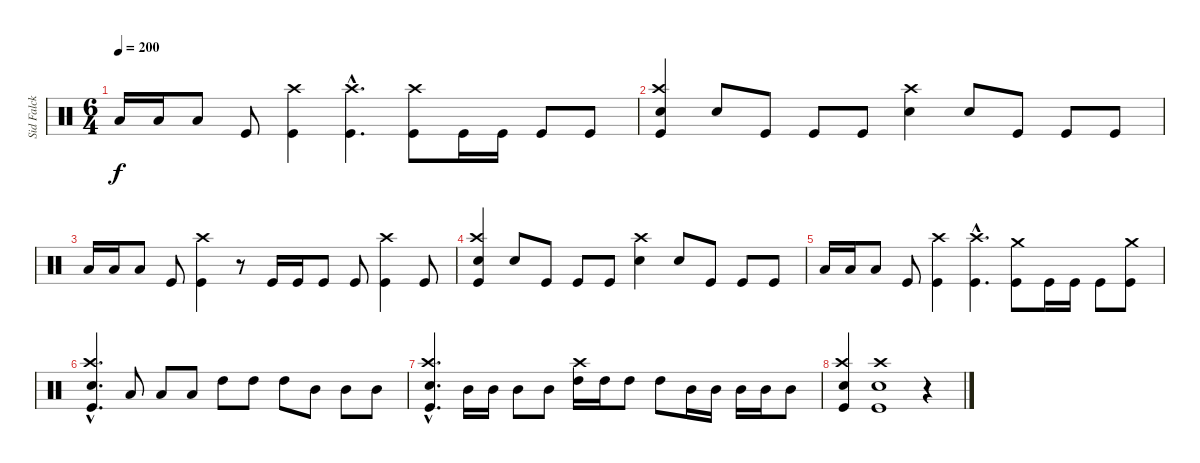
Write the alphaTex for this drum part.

\track ("Sid Falck - drums" "Sid Falck ") {instrument percussion}
\staff {score}
\articulation defaults
\ts (6 4)
\tempo 200
\clef neutral
\ks c "Low Tom (hit)".16{dy f} "Low Tom (hit)".16 "Low Tom (hit)".8 "Kick (hit)".8
("Crash high (hit)" "Kick (hit)").4 ("Crash high (hit)"{hac} "Kick (hit)"{hac}).4{d} ("Crash high (hit)" "Kick (hit)").8 "Kick (hit)".16 "Kick (hit)".16 "Kick (hit)".8 "Kick (hit)".8 |
("Crash high (hit)" "Electric Snare (hit)" "Kick (hit)").4 "Electric Snare (hit)".8 "Kick (hit)".8 "Kick (hit)".8 "Kick (hit)".8 ("Crash high (hit)" "Electric Snare (hit)").4 "Electric Snare (hit)".8 "Kick (hit)".8 "Kick (hit)".8 "Kick (hit)".8 |
"Low Tom (hit)".16 "Low Tom (hit)".16 "Low Tom (hit)".8 "Kick (hit)".8 ("Crash high (hit)" "Kick (hit)").4 r.8 "Kick (hit)".16 "Kick (hit)".16 "Kick (hit)".8 "Kick (hit)".8 ("Crash high (hit)" "Kick (hit)").4 "Kick (hit)".8 |
("Crash high (hit)" "Electric Snare (hit)" "Kick (hit)").4 "Electric Snare (hit)".8 "Kick (hit)".8 "Kick (hit)".8 "Kick (hit)".8 ("Crash high (hit)" "Electric Snare (hit)").4 "Electric Snare (hit)".8 "Kick (hit)".8 "Kick (hit)".8 "Kick (hit)".8 |
"Low Tom (hit)".16 "Low Tom (hit)".16 "Low Tom (hit)".8 "Kick (hit)".8 ("Crash high (hit)" "Kick (hit)").4 ("Crash high (hit)"{hac} "Kick (hit)"{hac}).4{d} ("Crash medium (hit)" "Kick (hit)").8 "Kick (hit)".16 "Kick (hit)".16 "Kick (hit)".8 ("Crash medium (hit)" "Kick (hit)").8 |
("Crash high (hit)"{hac} "Electric Snare (hit)"{hac} "Kick (hit)"{hac}).4{d} "Low Tom (hit)".8 "Low Tom (hit)".8 "Low Tom (hit)".8 "High Tom (hit)".8 "High Tom (hit)".8 "High Tom (hit)".8 "Mid Tom (hit)".8 "Mid Tom (hit)".8 "Mid Tom (hit)".8 |
("Crash high (hit)"{hac} "Electric Snare (hit)"{hac} "Kick (hit)"{hac}).4{d} "Mid Tom (hit)".16 "Mid Tom (hit)".16 "Mid Tom (hit)".8 "Mid Tom (hit)".8 ("Crash high (hit)" "High Tom (hit)").16 "High Tom (hit)".16 "High Tom (hit)".8 "High Tom (hit)".8 "Mid Tom (hit)".16 "Mid Tom (hit)".16 "Mid Tom (hit)".16 "Mid Tom (hit)".16 "Mid Tom (hit)".8 |
("Crash high (hit)" "Electric Snare (hit)" "Kick (hit)").4 ("Crash high (hit)" "Electric Snare (hit)" "Kick (hit)").1 r.4
